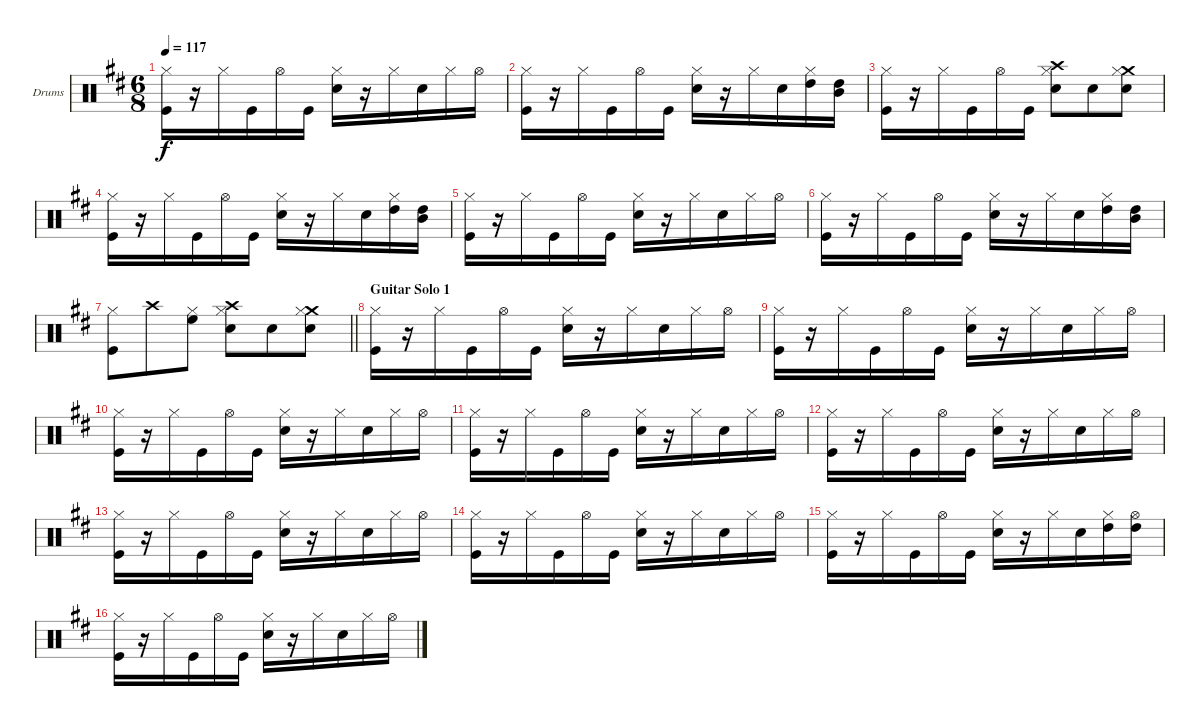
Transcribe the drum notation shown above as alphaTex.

\bracketExtendMode groupsimilarinstruments
\firstSystemTrackNameOrientation horizontal
\otherSystemsTrackNameOrientation horizontal
\track ("Drumkit" "Drums") {instrument percussion}
\staff {score}
\articulation defaults
\ts (6 8)
\tempo 117
\clef neutral
\ks d
("Hi-Hat (closed)" "Kick (hit)").16{dy f} r.16 "Hi-Hat (closed)".16 "Kick (hit)".16 "Hi-Hat (open)".16 "Kick (hit)".16 ("Hi-Hat (closed)" "Snare (hit) 2").16 r.16 "Hi-Hat (closed)".16 "Snare (hit) 2".16 "Hi-Hat (closed)".16 "Hi-Hat (open)".16 |
("Hi-Hat (closed)" "Kick (hit)").16 r.16 "Hi-Hat (closed)".16 "Kick (hit)".16 "Hi-Hat (open)".16 "Kick (hit)".16 ("Hi-Hat (closed)" "Snare (hit) 2").16 r.16 "Hi-Hat (closed)".16 "Snare (hit) 2".16 ("High Tom (hit)" "Hi-Hat (closed)").16 ("High Tom (hit)" "Mid Tom (hit)").16 |
("Hi-Hat (closed)" "Kick (hit)").16 r.16 "Hi-Hat (closed)".16 "Kick (hit)".16 "Hi-Hat (open)".16 "Kick (hit)".16 ("Crash high (hit)" "Hi-Hat (closed)" "Snare (hit) 2").8 "Snare (hit) 2".8 ("Crash medium (hit)" "Hi-Hat (closed)" "Snare (hit) 2").8 |
("Hi-Hat (closed)" "Kick (hit)").16 r.16 "Hi-Hat (closed)".16 "Kick (hit)".16 "Hi-Hat (open)".16 "Kick (hit)".16 ("Hi-Hat (closed)" "Snare (hit) 2").16 r.16 "Hi-Hat (closed)".16 "Snare (hit) 2".16 ("High Tom (hit)" "Hi-Hat (closed)").16 ("High Tom (hit)" "Mid Tom (hit)").16 |
("Hi-Hat (closed)" "Kick (hit)").16 r.16 "Hi-Hat (closed)".16 "Kick (hit)".16 "Hi-Hat (open)".16 "Kick (hit)".16 ("Hi-Hat (closed)" "Snare (hit) 2").16 r.16 "Hi-Hat (closed)".16 "Snare (hit) 2".16 "Hi-Hat (closed)".16 "Hi-Hat (open)".16 |
("Hi-Hat (closed)" "Kick (hit)").16 r.16 "Hi-Hat (closed)".16 "Kick (hit)".16 "Hi-Hat (open)".16 "Kick (hit)".16 ("Hi-Hat (closed)" "Snare (hit) 2").16 r.16 "Hi-Hat (closed)".16 "Snare (hit) 2".16 ("High Tom (hit)" "Hi-Hat (closed)").16 ("High Tom (hit)" "Mid Tom (hit)").16 |
\barLineRight lightlight
("Hi-Hat (closed)" "Kick (hit)").8 "Crash high (hit)".8 ("Hi-Hat (closed)" "High Floor Tom (hit)").8 ("Crash high (hit)" "Hi-Hat (closed)" "Snare (hit) 2").8 "Snare (hit) 2".8 ("Crash medium (hit)" "Hi-Hat (closed)" "Snare (hit) 2").8 |
\section ("" "Guitar Solo 1")
("Hi-Hat (closed)" "Kick (hit)").16 r.16 "Hi-Hat (closed)".16 "Kick (hit)".16 "Hi-Hat (open)".16 "Kick (hit)".16 ("Hi-Hat (closed)" "Snare (hit) 2").16 r.16 "Hi-Hat (closed)".16 "Snare (hit) 2".16 "Hi-Hat (closed)".16 "Hi-Hat (open)".16 |
("Hi-Hat (closed)" "Kick (hit)").16 r.16 "Hi-Hat (closed)".16 "Kick (hit)".16 "Hi-Hat (open)".16 "Kick (hit)".16 ("Hi-Hat (closed)" "Snare (hit) 2").16 r.16 "Hi-Hat (closed)".16 "Snare (hit) 2".16 "Hi-Hat (closed)".16 "Hi-Hat (open)".16 |
("Hi-Hat (closed)" "Kick (hit)").16 r.16 "Hi-Hat (closed)".16 "Kick (hit)".16 "Hi-Hat (open)".16 "Kick (hit)".16 ("Hi-Hat (closed)" "Snare (hit) 2").16 r.16 "Hi-Hat (closed)".16 "Snare (hit) 2".16 "Hi-Hat (closed)".16 "Hi-Hat (open)".16 |
("Hi-Hat (closed)" "Kick (hit)").16 r.16 "Hi-Hat (closed)".16 "Kick (hit)".16 "Hi-Hat (open)".16 "Kick (hit)".16 ("Hi-Hat (closed)" "Snare (hit) 2").16 r.16 "Hi-Hat (closed)".16 "Snare (hit) 2".16 "Hi-Hat (closed)".16 "Hi-Hat (open)".16 |
("Hi-Hat (closed)" "Kick (hit)").16 r.16 "Hi-Hat (closed)".16 "Kick (hit)".16 "Hi-Hat (open)".16 "Kick (hit)".16 ("Hi-Hat (closed)" "Snare (hit) 2").16 r.16 "Hi-Hat (closed)".16 "Snare (hit) 2".16 "Hi-Hat (closed)".16 "Hi-Hat (open)".16 |
("Hi-Hat (closed)" "Kick (hit)").16 r.16 "Hi-Hat (closed)".16 "Kick (hit)".16 "Hi-Hat (open)".16 "Kick (hit)".16 ("Hi-Hat (closed)" "Snare (hit) 2").16 r.16 "Hi-Hat (closed)".16 "Snare (hit) 2".16 "Hi-Hat (closed)".16 "Hi-Hat (open)".16 |
("Hi-Hat (closed)" "Kick (hit)").16 r.16 "Hi-Hat (closed)".16 "Kick (hit)".16 "Hi-Hat (open)".16 "Kick (hit)".16 ("Hi-Hat (closed)" "Snare (hit) 2").16 r.16 "Hi-Hat (closed)".16 "Snare (hit) 2".16 "Hi-Hat (closed)".16 "Hi-Hat (open)".16 |
("Hi-Hat (closed)" "Kick (hit)").16 r.16 "Hi-Hat (closed)".16 "Kick (hit)".16 "Hi-Hat (open)".16 "Kick (hit)".16 ("Hi-Hat (closed)" "Snare (hit) 2").16 r.16 "Hi-Hat (closed)".16 "Snare (hit) 2".16 ("High Tom (hit)" "Hi-Hat (closed)").16 ("High Tom (hit)" "Hi-Hat (open)").16 |
("Hi-Hat (closed)" "Kick (hit)").16 r.16 "Hi-Hat (closed)".16 "Kick (hit)".16 "Hi-Hat (open)".16 "Kick (hit)".16 ("Hi-Hat (closed)" "Snare (hit) 2").16 r.16 "Hi-Hat (closed)".16 "Snare (hit) 2".16 "Hi-Hat (closed)".16 "Hi-Hat (open)".16
